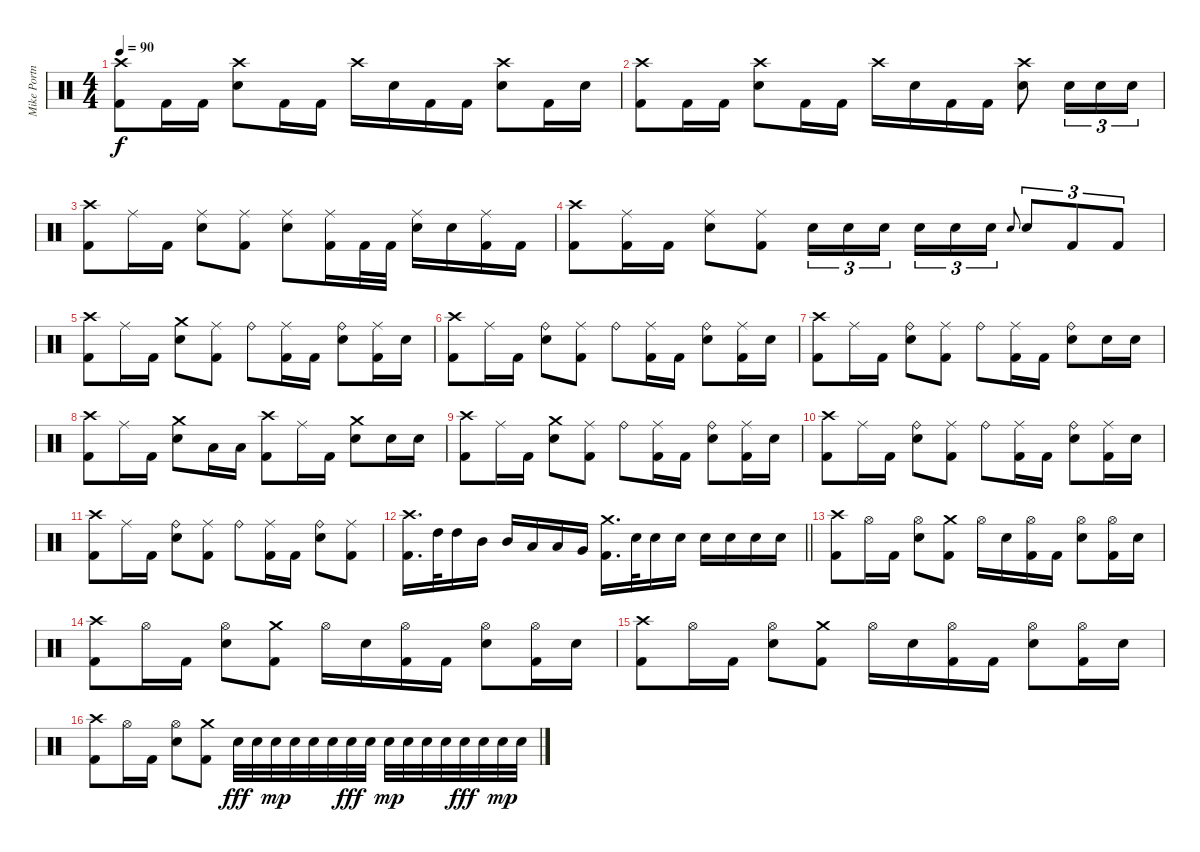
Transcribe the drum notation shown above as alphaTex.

\track ("Mike Portnoy" "Mike Portn") {instrument percussion}
\staff {score}
\articulation defaults
\ts (4 4)
\tempo 90
\clef neutral
\ks c
("Crash high (hit)" "Kick (hit) 2").8{dy f} "Kick (hit) 2".16 "Kick (hit) 2".16 ("Crash high (hit)" "Snare (hit) 2").8 "Kick (hit) 2".16 "Kick (hit) 2".16 "Crash high (hit)".16 "Snare (hit) 2".16 "Kick (hit) 2".16 "Kick (hit) 2".16 ("Crash high (hit)" "Snare (hit) 2").8 "Kick (hit) 2".16 "Snare (hit) 2".16 |
("Crash high (hit)" "Kick (hit) 2").8 "Kick (hit) 2".16 "Kick (hit) 2".16 ("Crash high (hit)" "Snare (hit) 2").8 "Kick (hit) 2".16 "Kick (hit) 2".16 "Crash high (hit)".16 "Snare (hit) 2".16 "Kick (hit) 2".16 "Kick (hit) 2".16 ("Crash high (hit)" "Snare (hit) 2").8 "Snare (hit) 2".16{tu (3 2)} "Snare (hit) 2".16{tu (3 2)} "Snare (hit) 2".16{tu (3 2)} |
("Crash high (hit)" "Kick (hit) 2").8 "Ride (middle)".16 "Kick (hit) 2".16 ("Ride (middle)" "Snare (hit) 2").8 ("Ride (middle)" "Kick (hit) 2").8 ("Ride (middle)" "Snare (hit) 2").8 ("Ride (middle)" "Kick (hit) 2").16 "Kick (hit) 2".32 "Kick (hit) 2".32 ("Ride (middle)" "Snare (hit) 2").16 "Snare (hit) 2".16 ("Ride (middle)" "Kick (hit) 2").16 "Kick (hit) 2".16 |
("Crash high (hit)" "Kick (hit) 2").8 ("Ride (middle)" "Kick (hit) 2").16 "Kick (hit) 2".16 ("Ride (middle)" "Snare (hit) 2").8 ("Ride (middle)" "Kick (hit) 2").8 "Snare (hit) 2".16{tu (3 2)} "Snare (hit) 2".16{tu (3 2)} "Snare (hit) 2".16{tu (3 2) beam splitsecondary} "Snare (hit) 2".16{tu (3 2)} "Snare (hit) 2".16{tu (3 2)} "Snare (hit) 2".16{tu (3 2)} "Snare (hit) 2".8{gr onbeat} "Snare (hit) 2".8{tu (3 2)} "Kick (hit) 2".8{tu (3 2)} "Kick (hit) 2".8{tu (3 2)} |
("Crash high (hit)" "Kick (hit) 2").8 "Ride (middle)".16 "Kick (hit) 2".16 ("Crash medium (hit)" "Snare (hit) 2").8 ("Ride (middle)" "Kick (hit) 2").8 "Ride (bell)".8 ("Ride (middle)" "Kick (hit) 2").16 "Kick (hit) 2".16 ("Ride (bell)" "Snare (hit) 2").8 ("Ride (middle)" "Kick (hit) 2").16 "Snare (hit) 2".16 |
("Crash high (hit)" "Kick (hit) 2").8 "Ride (middle)".16 "Kick (hit) 2".16 ("Ride (bell)" "Snare (hit) 2").8 ("Ride (middle)" "Kick (hit) 2").8 "Ride (bell)".8 ("Ride (middle)" "Kick (hit) 2").16 "Kick (hit) 2".16 ("Ride (bell)" "Snare (hit) 2").8 ("Ride (middle)" "Kick (hit) 2").16 "Snare (hit) 2".16 |
("Crash high (hit)" "Kick (hit) 2").8 "Ride (middle)".16 "Kick (hit) 2".16 ("Ride (bell)" "Snare (hit) 2").8 ("Ride (middle)" "Kick (hit) 2").8 "Ride (bell)".8 ("Ride (middle)" "Kick (hit) 2").16 "Kick (hit) 2".16 ("Ride (bell)" "Snare (hit) 2").8 "Snare (hit) 2".16 "Snare (hit) 2".16 |
("Crash high (hit)" "Kick (hit) 2").8 "Ride (middle)".16 "Kick (hit) 2".16 ("Crash medium (hit)" "Snare (hit) 2").8 "Low Tom (hit)".16 "Low Tom (hit)".16 ("Crash high (hit)" "Kick (hit) 2").8 "Ride (middle)".16 "Kick (hit) 2".16 ("Crash medium (hit)" "Snare (hit) 2").8 "Snare (hit) 2".16 "Snare (hit) 2".16 |
("Crash high (hit)" "Kick (hit) 2").8 "Ride (middle)".16 "Kick (hit) 2".16 ("Crash medium (hit)" "Snare (hit) 2").8 ("Ride (middle)" "Kick (hit) 2").8 "Ride (bell)".8 ("Ride (middle)" "Kick (hit) 2").16 "Kick (hit) 2".16 ("Ride (bell)" "Snare (hit) 2").8 ("Ride (middle)" "Kick (hit) 2").16 "Snare (hit) 2".16 |
("Crash high (hit)" "Kick (hit) 2").8 "Ride (middle)".16 "Kick (hit) 2".16 ("Ride (bell)" "Snare (hit) 2").8 ("Ride (middle)" "Kick (hit) 2").8 "Ride (bell)".8 ("Ride (middle)" "Kick (hit) 2").16 "Kick (hit) 2".16 ("Ride (bell)" "Snare (hit) 2").8 ("Ride (middle)" "Kick (hit) 2").16 "Snare (hit) 2".16 |
("Crash high (hit)" "Kick (hit) 2").8 "Ride (middle)".16 "Kick (hit) 2".16 ("Ride (bell)" "Snare (hit) 2").8 ("Ride (middle)" "Kick (hit) 2").8 "Ride (bell)".8 ("Ride (middle)" "Kick (hit) 2").16 "Kick (hit) 2".16 ("Ride (bell)" "Snare (hit) 2").8 ("Ride (middle)" "Kick (hit) 2").8 |
\barLineRight lightlight
("Crash high (hit)" "Kick (hit) 2").16{d} "High Tom (hit)".32 "High Tom (hit)".16 "Mid Tom (hit)".16 "Mid Tom (hit)".16 "Low Tom (hit)".16 "Low Tom (hit)".16 "Very Low Tom (hit)".16 ("Crash medium (hit)" "Kick (hit) 2").16{d} "Snare (hit) 2".32 "Snare (hit) 2".16 "Snare (hit) 2".16 "Snare (hit) 2".16 "Snare (hit) 2".16 "Snare (hit) 2".16 "Snare (hit) 2".16 |
("Crash high (hit)" "Kick (hit) 2").8 "Hi-Hat (open)".16 "Kick (hit) 2".16 ("Hi-Hat (open)" "Snare (hit) 2").8 ("Crash medium (hit)" "Kick (hit) 2").8 "Hi-Hat (open)".16 "Snare (hit) 2".16 ("Hi-Hat (open)" "Kick (hit) 2").16 "Kick (hit) 2".16 ("Hi-Hat (open)" "Snare (hit) 2").8 ("Hi-Hat (open)" "Kick (hit) 2").16 "Snare (hit) 2".16 |
("Crash high (hit)" "Kick (hit) 2").8 "Hi-Hat (open)".16 "Kick (hit) 2".16 ("Hi-Hat (open)" "Snare (hit) 2").8 ("Crash medium (hit)" "Kick (hit) 2").8 "Hi-Hat (open)".16 "Snare (hit) 2".16 ("Hi-Hat (open)" "Kick (hit) 2").16 "Kick (hit) 2".16 ("Hi-Hat (open)" "Snare (hit) 2").8 ("Hi-Hat (open)" "Kick (hit) 2").16 "Snare (hit) 2".16 |
("Crash high (hit)" "Kick (hit) 2").8 "Hi-Hat (open)".16 "Kick (hit) 2".16 ("Hi-Hat (open)" "Snare (hit) 2").8 ("Crash medium (hit)" "Kick (hit) 2").8 "Hi-Hat (open)".16 "Snare (hit) 2".16 ("Hi-Hat (open)" "Kick (hit) 2").16 "Kick (hit) 2".16 ("Hi-Hat (open)" "Snare (hit) 2").8 ("Hi-Hat (open)" "Kick (hit) 2").16 "Snare (hit) 2".16 |
("Crash high (hit)" "Kick (hit) 2").8 "Hi-Hat (open)".16 "Kick (hit) 2".16 ("Hi-Hat (open)" "Snare (hit) 2").8 ("Crash medium (hit)" "Kick (hit) 2").8 "Snare (hit) 2".32{dy fff} "Snare (hit) 2".32 "Snare (hit) 2".32{dy mp} "Snare (hit) 2".32 "Snare (hit) 2".32 "Snare (hit) 2".32 "Snare (hit) 2".32{dy fff} "Snare (hit) 2".32 "Snare (hit) 2".32{dy mp} "Snare (hit) 2".32 "Snare (hit) 2".32 "Snare (hit) 2".32 "Snare (hit) 2".32{dy fff} "Snare (hit) 2".32 "Snare (hit) 2".32{dy mp} "Snare (hit) 2".32
